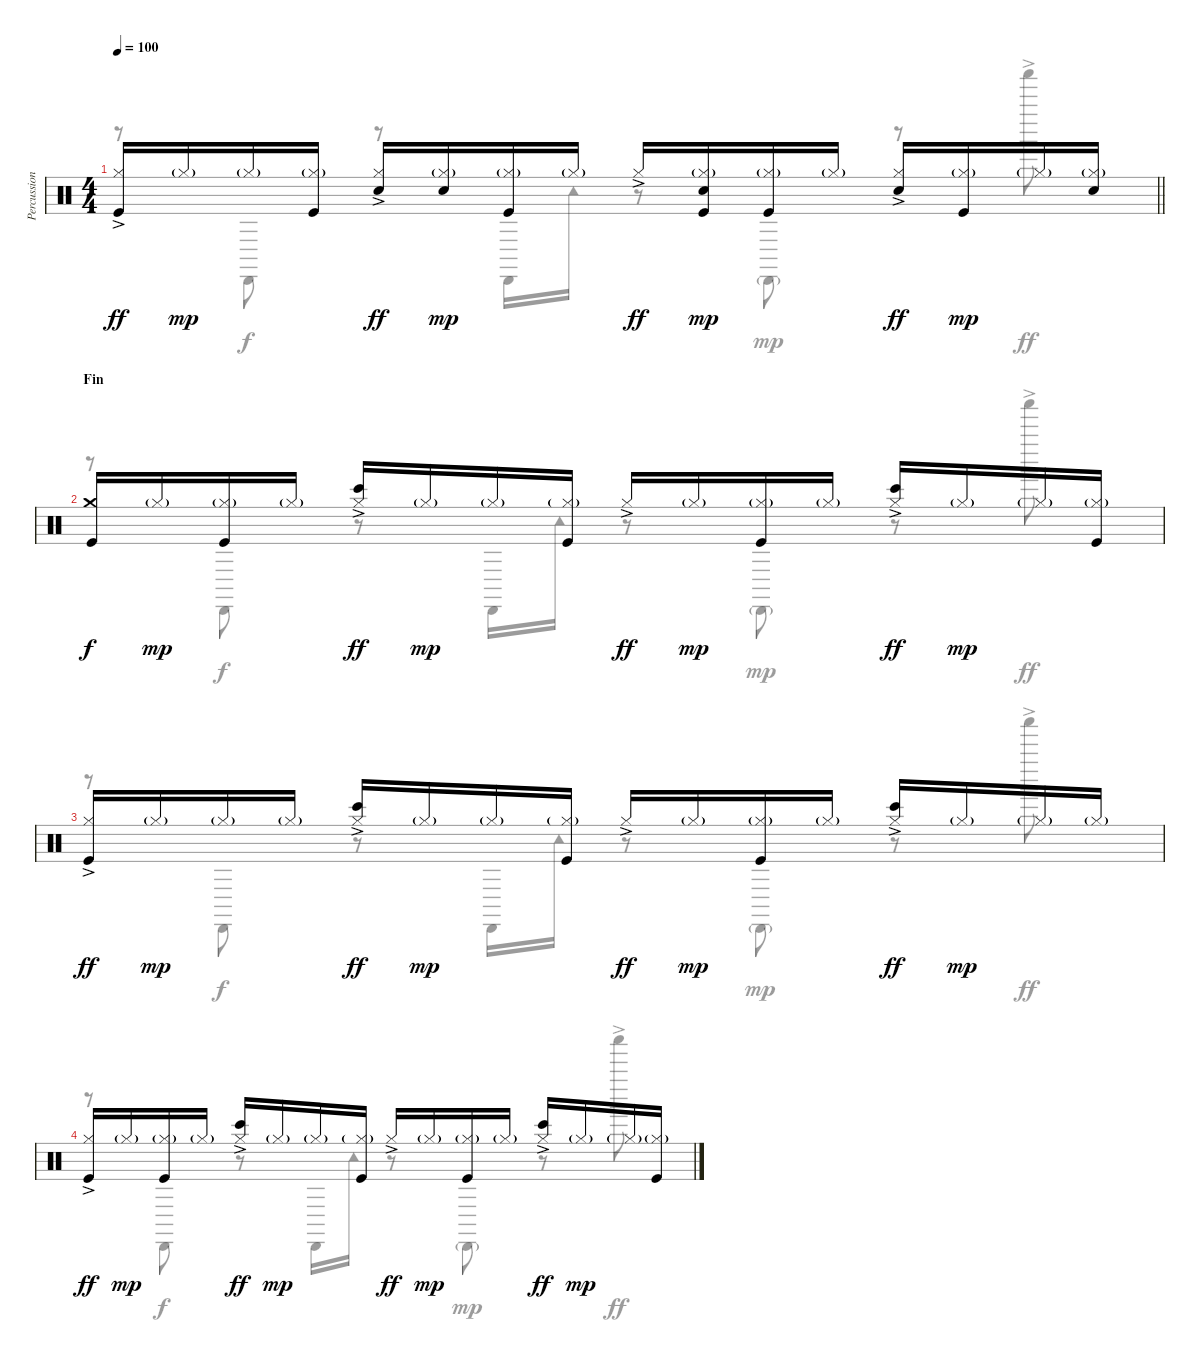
\track ("Percussions" "Percussion") {instrument percussion}
\staff {score}
\articulation defaults
\voice
\ts (4 4)
\tempo 100
\clef neutral
\barLineRight lightlight
\ks c
("Kick (hit)" "Hi-Hat (closed)"{ac}).16{dy ff} "Hi-Hat (closed)"{g}.16{dy mp} "Hi-Hat (closed)"{g}.16 ("Kick (hit)" "Hi-Hat (closed)"{g}).16 ("Electric Snare (hit)" "Hi-Hat (closed)"{ac}).16{dy ff} ("Electric Snare (hit)" "Hi-Hat (closed)"{g}).16{dy mp} ("Kick (hit)" "Hi-Hat (closed)"{g}).16 "Hi-Hat (closed)"{g}.16 "Hi-Hat (closed)"{ac}.16{dy ff} ("Kick (hit)" "Electric Snare (hit)" "Hi-Hat (closed)"{g}).16{dy mp} ("Kick (hit)" "Hi-Hat (closed)"{g}).16 "Hi-Hat (closed)"{g}.16 ("Snare (hit) 2" "Hi-Hat (closed)"{ac}).16{dy ff} ("Kick (hit)" "Hi-Hat (closed)"{g}).16{dy mp} "Hi-Hat (closed)"{g}.16 ("Electric Snare (hit)" "Hi-Hat (closed)"{g}).16 |
\section ("" "Fin")
("Kick (hit)" "Crash medium (hit)").16{dy f} "Hi-Hat (closed)"{g}.16{dy mp} ("Kick (hit)" "Hi-Hat (closed)"{g}).16 "Hi-Hat (closed)"{g}.16 ("Bongo High (hit)" "Hi-Hat (closed)"{ac}).16{dy ff} "Hi-Hat (closed)"{g}.16{dy mp} "Hi-Hat (closed)"{g}.16 ("Kick (hit)" "Hi-Hat (closed)"{g}).16 "Hi-Hat (closed)"{ac}.16{dy ff} "Hi-Hat (closed)"{g}.16{dy mp} ("Kick (hit)" "Hi-Hat (closed)"{g}).16 "Hi-Hat (closed)"{g}.16 ("Bongo High (hit)" "Hi-Hat (closed)"{ac}).16{dy ff} "Hi-Hat (closed)"{g}.16{dy mp} "Hi-Hat (closed)"{g}.16 ("Kick (hit)" "Hi-Hat (closed)"{g}).16 |
("Kick (hit)" "Hi-Hat (closed)"{ac}).16{dy ff} "Hi-Hat (closed)"{g}.16{dy mp} "Hi-Hat (closed)"{g}.16 "Hi-Hat (closed)"{g}.16 ("Bongo High (hit)" "Hi-Hat (closed)"{ac}).16{dy ff} "Hi-Hat (closed)"{g}.16{dy mp} "Hi-Hat (closed)"{g}.16 ("Kick (hit)" "Hi-Hat (closed)"{g}).16 "Hi-Hat (closed)"{ac}.16{dy ff} "Hi-Hat (closed)"{g}.16{dy mp} ("Kick (hit)" "Hi-Hat (closed)"{g}).16 "Hi-Hat (closed)"{g}.16 ("Bongo High (hit)" "Hi-Hat (closed)"{ac}).16{dy ff} "Hi-Hat (closed)"{g}.16{dy mp} "Hi-Hat (closed)"{g}.16 "Hi-Hat (closed)"{g}.16 |
("Kick (hit)" "Hi-Hat (closed)"{ac}).16{dy ff} "Hi-Hat (closed)"{g}.16{dy mp} ("Kick (hit)" "Hi-Hat (closed)"{g}).16 "Hi-Hat (closed)"{g}.16 ("Bongo High (hit)" "Hi-Hat (closed)"{ac}).16{dy ff} "Hi-Hat (closed)"{g}.16{dy mp} "Hi-Hat (closed)"{g}.16 ("Kick (hit)" "Hi-Hat (closed)"{g}).16 "Hi-Hat (closed)"{ac}.16{dy ff} "Hi-Hat (closed)"{g}.16{dy mp} ("Kick (hit)" "Hi-Hat (closed)"{g}).16 "Hi-Hat (closed)"{g}.16 ("Bongo High (hit)" "Hi-Hat (closed)"{ac}).16{dy ff} "Hi-Hat (closed)"{g}.16{dy mp} "Hi-Hat (closed)"{g}.16 ("Kick (hit)" "Hi-Hat (closed)"{g}).16
\voice
\clef neutral
\ottava regular
\simile none
\barLineRight lightlight
\ks c
r.8{dy ff} "Cabasa (hit)".8{dy f} r.8 "Cabasa (hit)".16 "Tambourine (hit)".16 r.8 "Cabasa (hit)"{g}.8{dy mp} r.8 "Shaker (hit)"{ac}.8{dy ff} |
r.8 "Cabasa (hit)".8{dy f} r.8 "Cabasa (hit)".16 "Tambourine (hit)".16 r.8 "Cabasa (hit)"{g}.8{dy mp} r.8 "Shaker (hit)"{ac}.8{dy ff} |
r.8 "Cabasa (hit)".8{dy f} r.8 "Cabasa (hit)".16 "Tambourine (hit)".16 r.8 "Cabasa (hit)"{g}.8{dy mp} r.8 "Shaker (hit)"{ac}.8{dy ff} |
r.8 "Cabasa (hit)".8{dy f} r.8 "Cabasa (hit)".16 "Tambourine (hit)".16 r.8 "Cabasa (hit)"{g}.8{dy mp} r.8 "Shaker (hit)"{ac}.8{dy ff}
